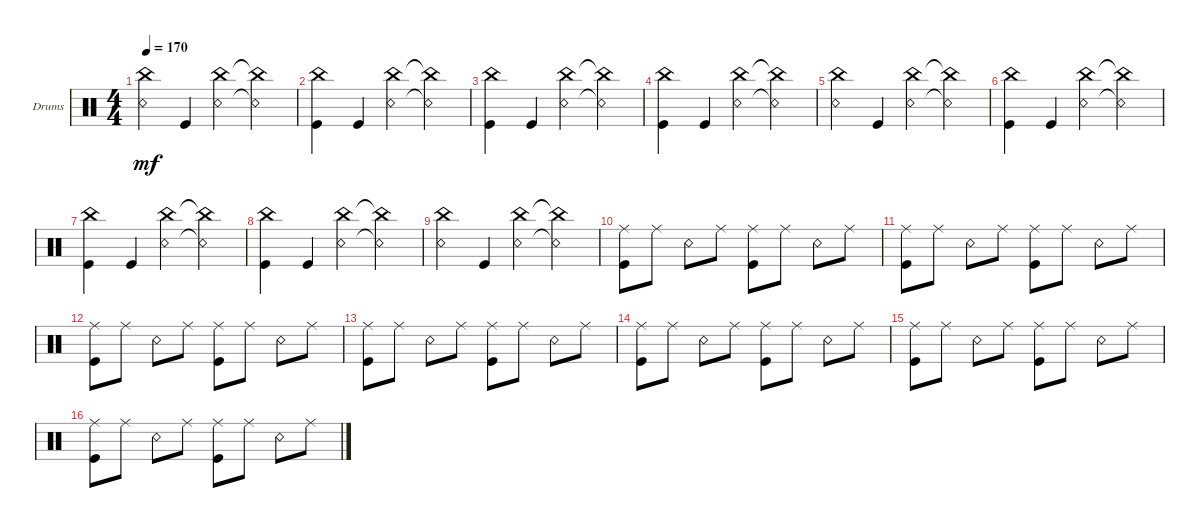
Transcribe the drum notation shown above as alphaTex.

\defaultSystemsLayout 4
\bracketExtendMode groupsimilarinstruments
\firstSystemTrackNameOrientation horizontal
\otherSystemsTrackNameOrientation horizontal
\track ("Drumkit" "Drums") {instrument percussion}
\staff {score}
\articulation defaults
\ts (4 4)
\tempo 170
\clef neutral
\ks c
("China (hit)" "Snare (rim shot)").4{dy mf} "Kick (hit)".4 ("Snare (rim shot)" "China (hit)").4 ("Snare (rim shot)"{t} "China (hit)"{t}).4 |
("Kick (hit)" "China (hit)").4 "Kick (hit)".4 ("Snare (rim shot)" "China (hit)").4 ("Snare (rim shot)"{t} "China (hit)"{t}).4 |
("Kick (hit)" "China (hit)").4 "Kick (hit)".4 ("Snare (rim shot)" "China (hit)").4 ("Snare (rim shot)"{t} "China (hit)"{t}).4 |
("Kick (hit)" "China (hit)").4 "Kick (hit)".4 ("Snare (rim shot)" "China (hit)").4 ("Snare (rim shot)"{t} "China (hit)"{t}).4 |
("China (hit)" "Snare (rim shot)").4 "Kick (hit)".4 ("Snare (rim shot)" "China (hit)").4 ("Snare (rim shot)"{t} "China (hit)"{t}).4 |
("Kick (hit)" "China (hit)").4 "Kick (hit)".4 ("Snare (rim shot)" "China (hit)").4 ("Snare (rim shot)"{t} "China (hit)"{t}).4 |
("Kick (hit)" "China (hit)").4 "Kick (hit)".4 ("Snare (rim shot)" "China (hit)").4 ("Snare (rim shot)"{t} "China (hit)"{t}).4 |
("Kick (hit)" "China (hit)").4 "Kick (hit)".4 ("Snare (rim shot)" "China (hit)").4 ("Snare (rim shot)"{t} "China (hit)"{t}).4 |
("China (hit)" "Snare (rim shot)").4 "Kick (hit)".4 ("Snare (rim shot)" "China (hit)").4 ("Snare (rim shot)"{t} "China (hit)"{t}).4 |
("Kick (hit)" "Ride (middle)").8 "Ride (middle)".8 "Snare (rim shot)".8 "Ride (middle)".8 ("Kick (hit)" "Ride (middle)").8 "Ride (middle)".8 "Snare (rim shot)".8 "Ride (middle)".8 |
("Kick (hit)" "Ride (middle)").8 "Ride (middle)".8 "Snare (rim shot)".8 "Ride (middle)".8 ("Kick (hit)" "Ride (middle)").8 "Ride (middle)".8 "Snare (rim shot)".8 "Ride (middle)".8 |
("Kick (hit)" "Ride (middle)").8 "Ride (middle)".8 "Snare (rim shot)".8 "Ride (middle)".8 ("Kick (hit)" "Ride (middle)").8 "Ride (middle)".8 "Snare (rim shot)".8 "Ride (middle)".8 |
("Kick (hit)" "Ride (middle)").8 "Ride (middle)".8 "Snare (rim shot)".8 "Ride (middle)".8 ("Kick (hit)" "Ride (middle)").8 "Ride (middle)".8 "Snare (rim shot)".8 "Ride (middle)".8 |
("Kick (hit)" "Ride (middle)").8 "Ride (middle)".8 "Snare (rim shot)".8 "Ride (middle)".8 ("Kick (hit)" "Ride (middle)").8 "Ride (middle)".8 "Snare (rim shot)".8 "Ride (middle)".8 |
("Kick (hit)" "Ride (middle)").8 "Ride (middle)".8 "Snare (rim shot)".8 "Ride (middle)".8 ("Kick (hit)" "Ride (middle)").8 "Ride (middle)".8 "Snare (rim shot)".8 "Ride (middle)".8 |
("Kick (hit)" "Ride (middle)").8 "Ride (middle)".8 "Snare (rim shot)".8 "Ride (middle)".8 ("Kick (hit)" "Ride (middle)").8 "Ride (middle)".8 "Snare (rim shot)".8 "Ride (middle)".8
